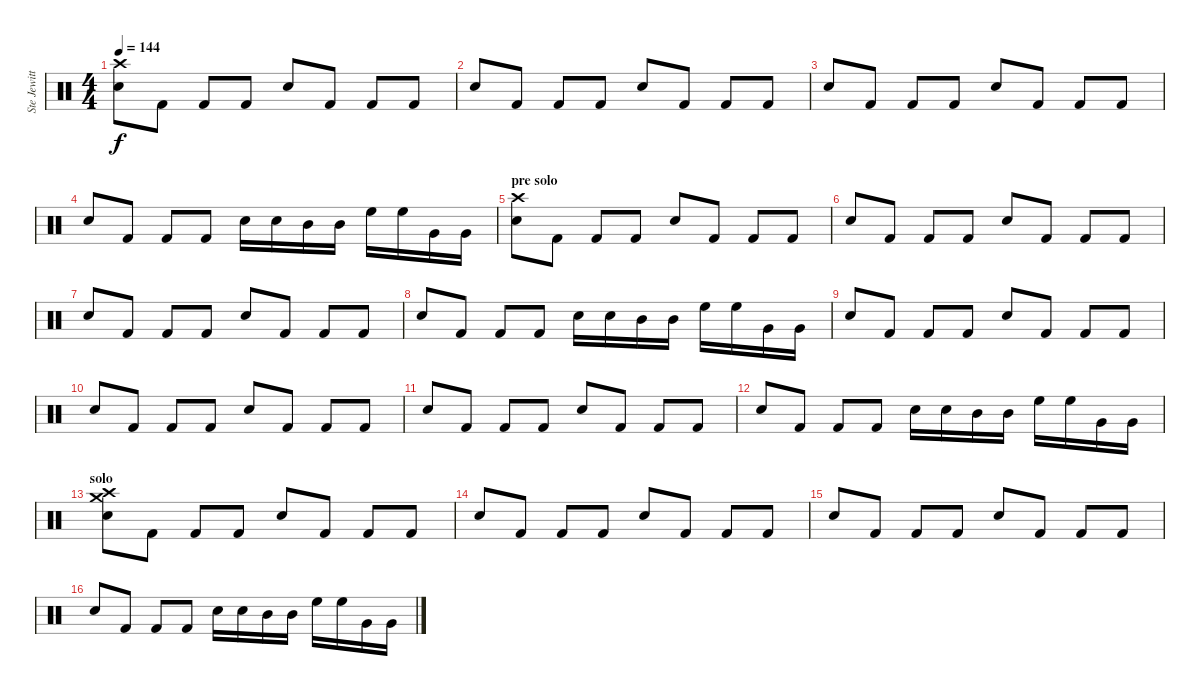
\track ("Ste Jewitt (Drummer)" "Ste Jewitt") {instrument percussion}
\staff {score}
\articulation defaults
\ts (4 4)
\tempo 144
\clef neutral
\ks c
("Crash high (hit)" "Snare (hit) 2").8{dy f} "Kick (hit) 2".8 "Kick (hit) 2".8 "Kick (hit) 2".8 "Snare (hit) 2".8 "Kick (hit) 2".8 "Kick (hit) 2".8 "Kick (hit) 2".8 |
"Snare (hit) 2".8 "Kick (hit) 2".8 "Kick (hit) 2".8 "Kick (hit) 2".8 "Snare (hit) 2".8 "Kick (hit) 2".8 "Kick (hit) 2".8 "Kick (hit) 2".8 |
"Snare (hit) 2".8 "Kick (hit) 2".8 "Kick (hit) 2".8 "Kick (hit) 2".8 "Snare (hit) 2".8 "Kick (hit) 2".8 "Kick (hit) 2".8 "Kick (hit) 2".8 |
"Snare (hit) 2".8 "Kick (hit) 2".8 "Kick (hit) 2".8 "Kick (hit) 2".8 "Snare (hit) 2".16 "Snare (hit) 2".16 "Mid Tom (hit)".16 "Mid Tom (hit)".16 "High Floor Tom (hit)".16 "High Floor Tom (hit)".16 "Very Low Tom (hit)".16 "Very Low Tom (hit)".16 |
\section ("" "pre solo")
("Crash high (hit)" "Snare (hit) 2").8 "Kick (hit) 2".8 "Kick (hit) 2".8 "Kick (hit) 2".8 "Snare (hit) 2".8 "Kick (hit) 2".8 "Kick (hit) 2".8 "Kick (hit) 2".8 |
"Snare (hit) 2".8 "Kick (hit) 2".8 "Kick (hit) 2".8 "Kick (hit) 2".8 "Snare (hit) 2".8 "Kick (hit) 2".8 "Kick (hit) 2".8 "Kick (hit) 2".8 |
"Snare (hit) 2".8 "Kick (hit) 2".8 "Kick (hit) 2".8 "Kick (hit) 2".8 "Snare (hit) 2".8 "Kick (hit) 2".8 "Kick (hit) 2".8 "Kick (hit) 2".8 |
"Snare (hit) 2".8 "Kick (hit) 2".8 "Kick (hit) 2".8 "Kick (hit) 2".8 "Snare (hit) 2".16 "Snare (hit) 2".16 "Mid Tom (hit)".16 "Mid Tom (hit)".16 "High Floor Tom (hit)".16 "High Floor Tom (hit)".16 "Very Low Tom (hit)".16 "Very Low Tom (hit)".16 |
"Snare (hit) 2".8 "Kick (hit) 2".8 "Kick (hit) 2".8 "Kick (hit) 2".8 "Snare (hit) 2".8 "Kick (hit) 2".8 "Kick (hit) 2".8 "Kick (hit) 2".8 |
"Snare (hit) 2".8 "Kick (hit) 2".8 "Kick (hit) 2".8 "Kick (hit) 2".8 "Snare (hit) 2".8 "Kick (hit) 2".8 "Kick (hit) 2".8 "Kick (hit) 2".8 |
"Snare (hit) 2".8 "Kick (hit) 2".8 "Kick (hit) 2".8 "Kick (hit) 2".8 "Snare (hit) 2".8 "Kick (hit) 2".8 "Kick (hit) 2".8 "Kick (hit) 2".8 |
"Snare (hit) 2".8 "Kick (hit) 2".8 "Kick (hit) 2".8 "Kick (hit) 2".8 "Snare (hit) 2".16 "Snare (hit) 2".16 "Mid Tom (hit)".16 "Mid Tom (hit)".16 "High Floor Tom (hit)".16 "High Floor Tom (hit)".16 "Very Low Tom (hit)".16 "Very Low Tom (hit)".16 |
\section ("" "solo")
("Crash high (hit)" "Crash medium (hit)" "Snare (hit) 2").8 "Kick (hit) 2".8 "Kick (hit) 2".8 "Kick (hit) 2".8 "Snare (hit) 2".8 "Kick (hit) 2".8 "Kick (hit) 2".8 "Kick (hit) 2".8 |
"Snare (hit) 2".8 "Kick (hit) 2".8 "Kick (hit) 2".8 "Kick (hit) 2".8 "Snare (hit) 2".8 "Kick (hit) 2".8 "Kick (hit) 2".8 "Kick (hit) 2".8 |
"Snare (hit) 2".8 "Kick (hit) 2".8 "Kick (hit) 2".8 "Kick (hit) 2".8 "Snare (hit) 2".8 "Kick (hit) 2".8 "Kick (hit) 2".8 "Kick (hit) 2".8 |
"Snare (hit) 2".8 "Kick (hit) 2".8 "Kick (hit) 2".8 "Kick (hit) 2".8 "Snare (hit) 2".16 "Snare (hit) 2".16 "Mid Tom (hit)".16 "Mid Tom (hit)".16 "High Floor Tom (hit)".16 "High Floor Tom (hit)".16 "Very Low Tom (hit)".16 "Very Low Tom (hit)".16
